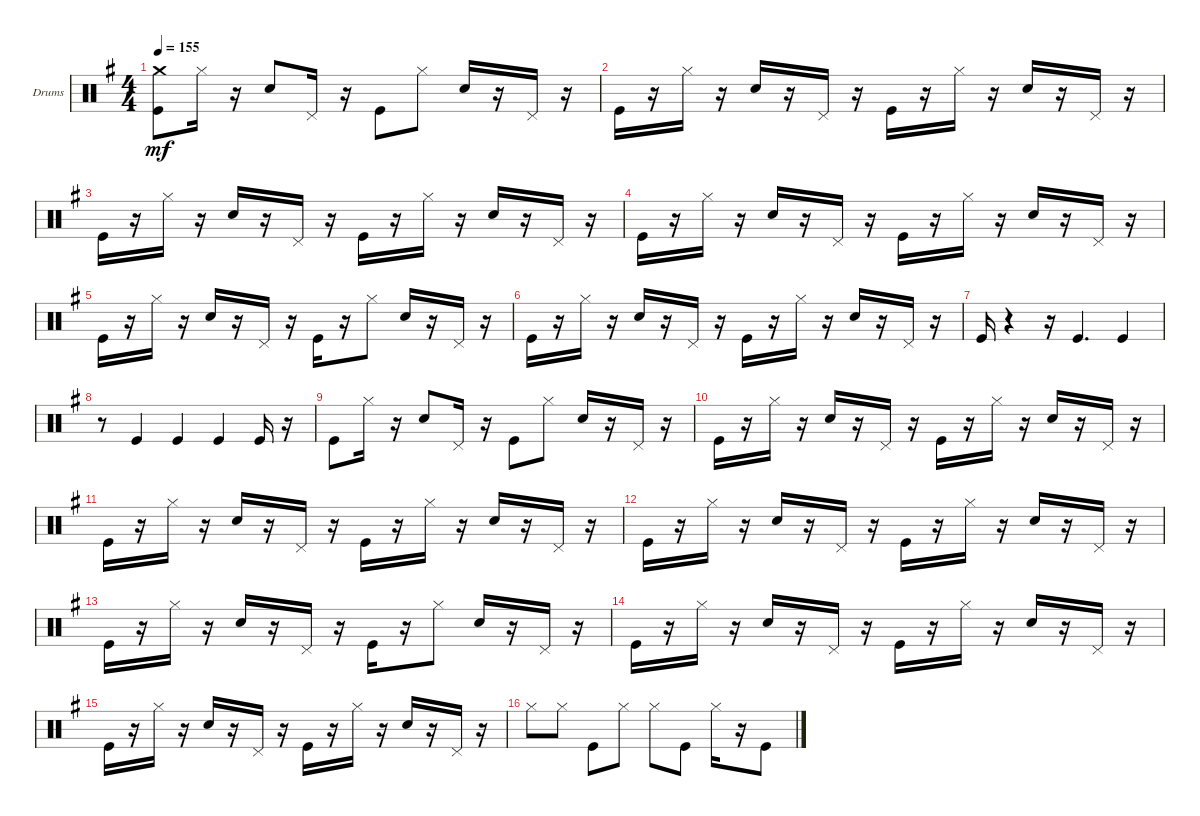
\bracketExtendMode groupsimilarinstruments
\firstSystemTrackNameOrientation horizontal
\otherSystemsTrackNameOrientation horizontal
\track ("Drumkit" "Drums") {instrument percussion}
\staff {score}
\articulation defaults
\ts (4 4)
\tempo 155
\clef neutral
\scale
0.333333
\ks g
("Crash medium (hit)" "Kick (hit)").8{dy mf} "Hi-Hat (closed)".16 r.16 "Snare (hit) 2".8 "Pedal Hi-Hat (hit)".16 r.16 "Kick (hit)".8 "Hi-Hat (closed)".8 "Snare (hit) 2".16 r.16 "Pedal Hi-Hat (hit)".16 r.16 |
\scale
0.333333 "Kick (hit)".16 r.16 "Hi-Hat (closed)".16 r.16 "Snare (hit) 2".16 r.16 "Pedal Hi-Hat (hit)".16 r.16 "Kick (hit)".16 r.16 "Hi-Hat (closed)".16 r.16 "Snare (hit) 2".16 r.16 "Pedal Hi-Hat (hit)".16 r.16 |
\scale
0.333333 "Kick (hit)".16 r.16 "Hi-Hat (closed)".16 r.16 "Snare (hit) 2".16 r.16 "Pedal Hi-Hat (hit)".16 r.16 "Kick (hit)".16 r.16 "Hi-Hat (closed)".16 r.16 "Snare (hit) 2".16 r.16 "Pedal Hi-Hat (hit)".16 r.16 |
\scale
0.333333 "Kick (hit)".16 r.16 "Hi-Hat (closed)".16 r.16 "Snare (hit) 2".16 r.16 "Pedal Hi-Hat (hit)".16 r.16 "Kick (hit)".16 r.16 "Hi-Hat (closed)".16 r.16 "Snare (hit) 2".16 r.16 "Pedal Hi-Hat (hit)".16 r.16 |
\scale
0.333333 "Kick (hit)".16 r.16 "Hi-Hat (closed)".16 r.16 "Snare (hit) 2".16 r.16 "Pedal Hi-Hat (hit)".16 r.16 "Kick (hit)".16 r.16 "Hi-Hat (closed)".8 "Snare (hit) 2".16 r.16 "Pedal Hi-Hat (hit)".16 r.16 |
\scale
0.333333 "Kick (hit)".16 r.16 "Hi-Hat (closed)".16 r.16 "Snare (hit) 2".16 r.16 "Pedal Hi-Hat (hit)".16 r.16 "Kick (hit)".16 r.16 "Hi-Hat (closed)".16 r.16 "Snare (hit) 2".16 r.16 "Pedal Hi-Hat (hit)".16 r.16 |
\scale
0.333333 "Kick (hit)".16 r.4 r.16 "Kick (hit)".4{d} "Kick (hit)".4 |
\scale
0.333333 r.8 "Kick (hit)".4 "Kick (hit)".4 "Kick (hit)".4 "Kick (hit)".16 r.16 |
\scale
0.333333 "Kick (hit)".8 "Hi-Hat (closed)".16 r.16 "Snare (hit) 2".8 "Pedal Hi-Hat (hit)".16 r.16 "Kick (hit)".8 "Hi-Hat (closed)".8 "Snare (hit) 2".16 r.16 "Pedal Hi-Hat (hit)".16 r.16 |
\scale
0.333333 "Kick (hit)".16 r.16 "Hi-Hat (closed)".16 r.16 "Snare (hit) 2".16 r.16 "Pedal Hi-Hat (hit)".16 r.16 "Kick (hit)".16 r.16 "Hi-Hat (closed)".16 r.16 "Snare (hit) 2".16 r.16 "Pedal Hi-Hat (hit)".16 r.16 |
\scale
0.333333 "Kick (hit)".16 r.16 "Hi-Hat (closed)".16 r.16 "Snare (hit) 2".16 r.16 "Pedal Hi-Hat (hit)".16 r.16 "Kick (hit)".16 r.16 "Hi-Hat (closed)".16 r.16 "Snare (hit) 2".16 r.16 "Pedal Hi-Hat (hit)".16 r.16 |
\scale
0.333333 "Kick (hit)".16 r.16 "Hi-Hat (closed)".16 r.16 "Snare (hit) 2".16 r.16 "Pedal Hi-Hat (hit)".16 r.16 "Kick (hit)".16 r.16 "Hi-Hat (closed)".16 r.16 "Snare (hit) 2".16 r.16 "Pedal Hi-Hat (hit)".16 r.16 |
\scale
0.333333 "Kick (hit)".16 r.16 "Hi-Hat (closed)".16 r.16 "Snare (hit) 2".16 r.16 "Pedal Hi-Hat (hit)".16 r.16 "Kick (hit)".16 r.16 "Hi-Hat (closed)".8 "Snare (hit) 2".16 r.16 "Pedal Hi-Hat (hit)".16 r.16 |
\scale
0.333333 "Kick (hit)".16 r.16 "Hi-Hat (closed)".16 r.16 "Snare (hit) 2".16 r.16 "Pedal Hi-Hat (hit)".16 r.16 "Kick (hit)".16 r.16 "Hi-Hat (closed)".16 r.16 "Snare (hit) 2".16 r.16 "Pedal Hi-Hat (hit)".16 r.16 |
\scale
0.333333 "Kick (hit)".16 r.16 "Hi-Hat (closed)".16 r.16 "Snare (hit) 2".16 r.16 "Pedal Hi-Hat (hit)".16 r.16 "Kick (hit)".16 r.16 "Hi-Hat (closed)".16 r.16 "Snare (hit) 2".16 r.16 "Pedal Hi-Hat (hit)".16 r.16 |
\scale
0.333333 "Hi-Hat (closed)".8 "Hi-Hat (closed)".8 "Kick (hit)".8 "Hi-Hat (closed)".8 "Hi-Hat (closed)".8 "Kick (hit)".8 "Hi-Hat (closed)".16 r.16 "Kick (hit)".8
